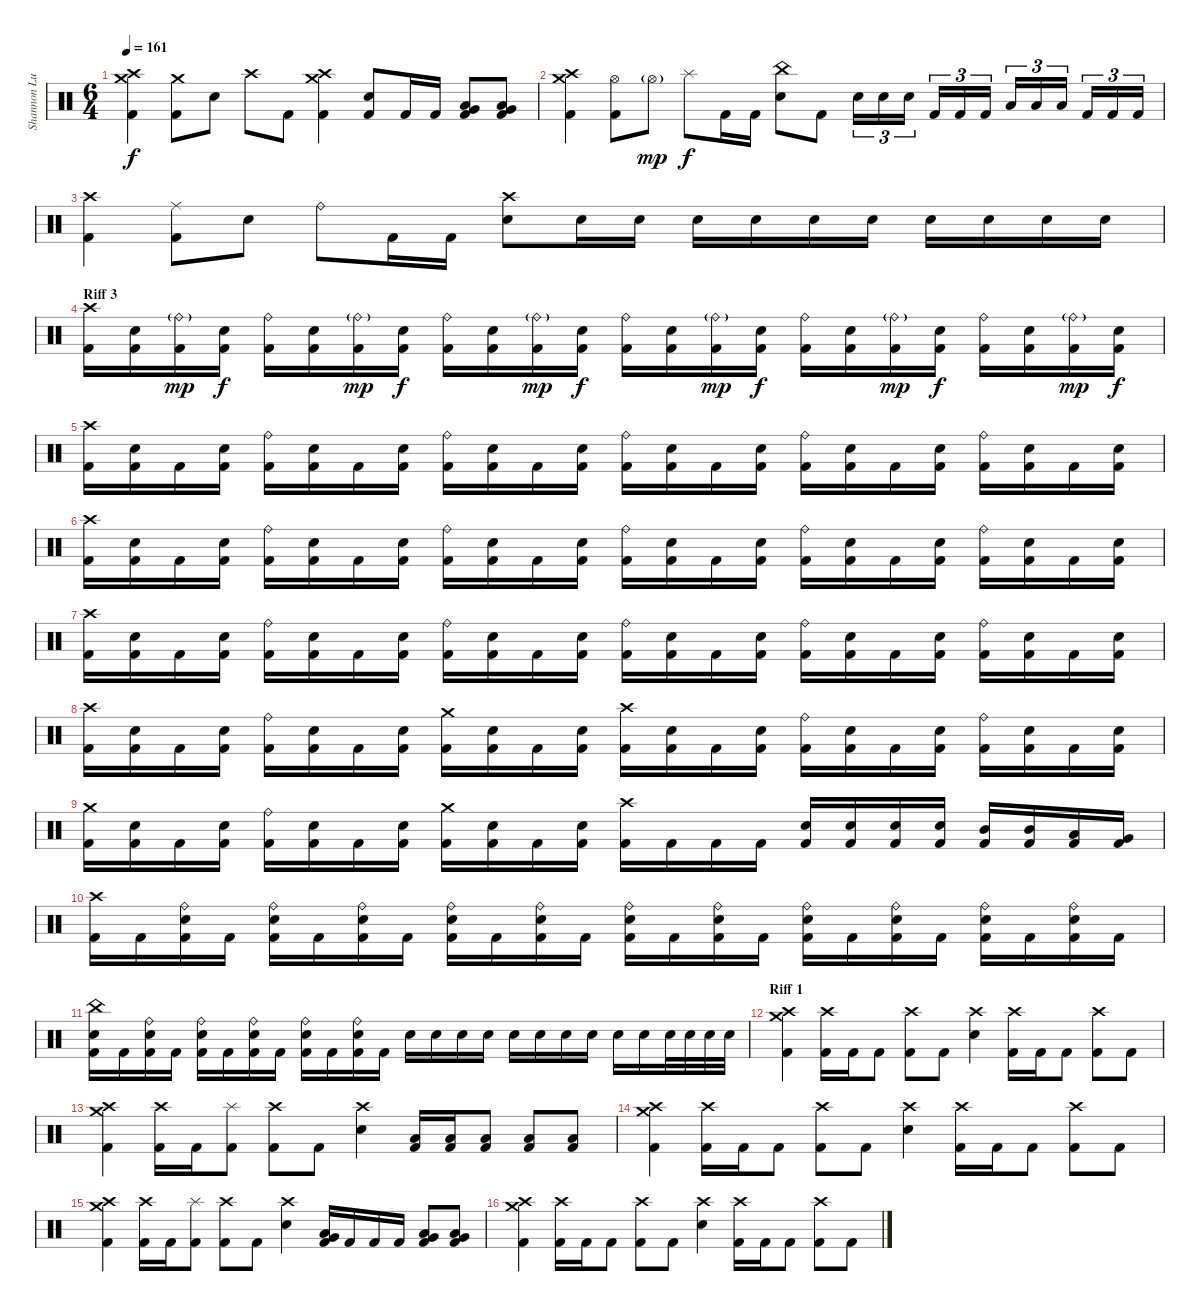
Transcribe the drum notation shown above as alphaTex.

\track ("Shannon Lucas (Drums)" "Shannon Lu") {instrument percussion}
\staff {score}
\articulation defaults
\ts (6 4)
\tempo 161
\clef neutral
\ks c
("Crash medium (hit)" "Crash high (hit)" "Kick (hit) 2").4{dy f} ("Crash medium (hit)" "Kick (hit) 2").8 "Snare (hit) 2".8 "Crash high (hit)".8 "Kick (hit) 2".8 ("Crash high (hit)" "Crash medium (hit)" "Kick (hit) 2").4 ("Snare (hit) 2" "Kick (hit) 2").8 "Kick (hit) 2".16 "Kick (hit) 2".16 ("Very Low Tom (hit)" "Low Tom (hit)" "Kick (hit) 2").8 ("Low Floor Tom (hit)" "Very Low Tom (hit)" "Kick (hit) 2").8 |
("Crash medium (hit)" "Crash high (hit)" "Kick (hit) 2").4 ("Hi-Hat (open)" "Kick (hit) 2").8 "Hi-Hat (open)"{g}.8{dy mp} "Splash (hit)".8{dy f} "Kick (hit) 2".16 "Kick (hit) 2".16 ("China (hit)" "Snare (hit) 2").8 "Kick (hit) 2".8 "Snare (hit) 2".16{tu (3 2)} "Snare (hit) 2".16{tu (3 2)} "Snare (hit) 2".16{tu (3 2)} "Kick (hit) 2".16{tu (3 2)} "Kick (hit) 2".16{tu (3 2)} "Kick (hit) 2".16{tu (3 2)} "Low Tom (hit)".16{tu (3 2)} "Low Tom (hit)".16{tu (3 2)} "Low Tom (hit)".16{tu (3 2)} "Kick (hit) 2".16{tu (3 2)} "Kick (hit) 2".16{tu (3 2)} "Kick (hit) 2".16{tu (3 2)} |
("Crash high (hit)" "Kick (hit) 2").4 ("Ride (middle)" "Kick (hit) 2").8 "Snare (hit) 2".8 "Ride (bell)".8 "Kick (hit) 2".16 "Kick (hit) 2".16 ("Crash high (hit)" "Snare (hit) 2").8 "Snare (hit) 2".16 "Snare (hit) 2".16 "Snare (hit) 2".16 "Snare (hit) 2".16 "Snare (hit) 2".16 "Snare (hit) 2".16 "Snare (hit) 2".16 "Snare (hit) 2".16 "Snare (hit) 2".16 "Snare (hit) 2".16 |
\section ("" "Riff 3")
("Crash high (hit)" "Kick (hit) 2").16 ("Snare (hit) 2" "Kick (hit) 2").16 ("Ride (bell)"{g} "Kick (hit) 2").16{dy mp} ("Snare (hit) 2" "Kick (hit) 2").16{dy f} ("Ride (bell)" "Kick (hit) 2").16 ("Snare (hit) 2" "Kick (hit) 2").16 ("Ride (bell)"{g} "Kick (hit) 2").16{dy mp} ("Snare (hit) 2" "Kick (hit) 2").16{dy f} ("Ride (bell)" "Kick (hit) 2").16 ("Snare (hit) 2" "Kick (hit) 2").16 ("Ride (bell)"{g} "Kick (hit) 2").16{dy mp} ("Snare (hit) 2" "Kick (hit) 2").16{dy f} ("Ride (bell)" "Kick (hit) 2").16 ("Snare (hit) 2" "Kick (hit) 2").16 ("Ride (bell)"{g} "Kick (hit) 2").16{dy mp} ("Snare (hit) 2" "Kick (hit) 2").16{dy f} ("Ride (bell)" "Kick (hit) 2").16 ("Snare (hit) 2" "Kick (hit) 2").16 ("Ride (bell)"{g} "Kick (hit) 2").16{dy mp} ("Snare (hit) 2" "Kick (hit) 2").16{dy f} ("Ride (bell)" "Kick (hit) 2").16 ("Snare (hit) 2" "Kick (hit) 2").16 ("Ride (bell)"{g} "Kick (hit) 2").16{dy mp} ("Snare (hit) 2" "Kick (hit) 2").16{dy f} |
("Crash high (hit)" "Kick (hit) 2").16 ("Snare (hit) 2" "Kick (hit) 2").16 "Kick (hit) 2".16 ("Snare (hit) 2" "Kick (hit) 2").16 ("Ride (bell)" "Kick (hit) 2").16 ("Snare (hit) 2" "Kick (hit) 2").16 "Kick (hit) 2".16 ("Snare (hit) 2" "Kick (hit) 2").16 ("Ride (bell)" "Kick (hit) 2").16 ("Snare (hit) 2" "Kick (hit) 2").16 "Kick (hit) 2".16 ("Snare (hit) 2" "Kick (hit) 2").16 ("Ride (bell)" "Kick (hit) 2").16 ("Snare (hit) 2" "Kick (hit) 2").16 "Kick (hit) 2".16 ("Snare (hit) 2" "Kick (hit) 2").16 ("Ride (bell)" "Kick (hit) 2").16 ("Snare (hit) 2" "Kick (hit) 2").16 "Kick (hit) 2".16 ("Snare (hit) 2" "Kick (hit) 2").16 ("Ride (bell)" "Kick (hit) 2").16 ("Snare (hit) 2" "Kick (hit) 2").16 "Kick (hit) 2".16 ("Snare (hit) 2" "Kick (hit) 2").16 |
("Crash high (hit)" "Kick (hit) 2").16 ("Snare (hit) 2" "Kick (hit) 2").16 "Kick (hit) 2".16 ("Snare (hit) 2" "Kick (hit) 2").16 ("Ride (bell)" "Kick (hit) 2").16 ("Snare (hit) 2" "Kick (hit) 2").16 "Kick (hit) 2".16 ("Snare (hit) 2" "Kick (hit) 2").16 ("Ride (bell)" "Kick (hit) 2").16 ("Snare (hit) 2" "Kick (hit) 2").16 "Kick (hit) 2".16 ("Snare (hit) 2" "Kick (hit) 2").16 ("Ride (bell)" "Kick (hit) 2").16 ("Snare (hit) 2" "Kick (hit) 2").16 "Kick (hit) 2".16 ("Snare (hit) 2" "Kick (hit) 2").16 ("Ride (bell)" "Kick (hit) 2").16 ("Snare (hit) 2" "Kick (hit) 2").16 "Kick (hit) 2".16 ("Snare (hit) 2" "Kick (hit) 2").16 ("Ride (bell)" "Kick (hit) 2").16 ("Snare (hit) 2" "Kick (hit) 2").16 "Kick (hit) 2".16 ("Snare (hit) 2" "Kick (hit) 2").16 |
("Crash high (hit)" "Kick (hit) 2").16 ("Snare (hit) 2" "Kick (hit) 2").16 "Kick (hit) 2".16 ("Snare (hit) 2" "Kick (hit) 2").16 ("Ride (bell)" "Kick (hit) 2").16 ("Snare (hit) 2" "Kick (hit) 2").16 "Kick (hit) 2".16 ("Snare (hit) 2" "Kick (hit) 2").16 ("Ride (bell)" "Kick (hit) 2").16 ("Snare (hit) 2" "Kick (hit) 2").16 "Kick (hit) 2".16 ("Snare (hit) 2" "Kick (hit) 2").16 ("Ride (bell)" "Kick (hit) 2").16 ("Snare (hit) 2" "Kick (hit) 2").16 "Kick (hit) 2".16 ("Snare (hit) 2" "Kick (hit) 2").16 ("Ride (bell)" "Kick (hit) 2").16 ("Snare (hit) 2" "Kick (hit) 2").16 "Kick (hit) 2".16 ("Snare (hit) 2" "Kick (hit) 2").16 ("Ride (bell)" "Kick (hit) 2").16 ("Snare (hit) 2" "Kick (hit) 2").16 "Kick (hit) 2".16 ("Snare (hit) 2" "Kick (hit) 2").16 |
("Crash high (hit)" "Kick (hit) 2").16 ("Snare (hit) 2" "Kick (hit) 2").16 "Kick (hit) 2".16 ("Snare (hit) 2" "Kick (hit) 2").16 ("Ride (bell)" "Kick (hit) 2").16 ("Snare (hit) 2" "Kick (hit) 2").16 "Kick (hit) 2".16 ("Snare (hit) 2" "Kick (hit) 2").16 ("Crash medium (hit)" "Kick (hit) 2").16 ("Snare (hit) 2" "Kick (hit) 2").16 "Kick (hit) 2".16 ("Snare (hit) 2" "Kick (hit) 2").16 ("Crash high (hit)" "Kick (hit) 2").16 ("Snare (hit) 2" "Kick (hit) 2").16 "Kick (hit) 2".16 ("Snare (hit) 2" "Kick (hit) 2").16 ("Ride (bell)" "Kick (hit) 2").16 ("Snare (hit) 2" "Kick (hit) 2").16 "Kick (hit) 2".16 ("Snare (hit) 2" "Kick (hit) 2").16 ("Ride (bell)" "Kick (hit) 2").16 ("Snare (hit) 2" "Kick (hit) 2").16 "Kick (hit) 2".16 ("Snare (hit) 2" "Kick (hit) 2").16 |
("Crash medium (hit)" "Kick (hit) 2").16 ("Snare (hit) 2" "Kick (hit) 2").16 "Kick (hit) 2".16 ("Snare (hit) 2" "Kick (hit) 2").16 ("Ride (bell)" "Kick (hit) 2").16 ("Snare (hit) 2" "Kick (hit) 2").16 "Kick (hit) 2".16 ("Snare (hit) 2" "Kick (hit) 2").16 ("Crash medium (hit)" "Kick (hit) 2").16 ("Snare (hit) 2" "Kick (hit) 2").16 "Kick (hit) 2".16 ("Snare (hit) 2" "Kick (hit) 2").16 ("Crash high (hit)" "Kick (hit) 2").16 "Kick (hit) 2".16 "Kick (hit) 2".16 "Kick (hit) 2".16 ("Snare (hit) 2" "Kick (hit) 2").16 ("Snare (hit) 2" "Kick (hit) 2").16 ("Snare (hit) 2" "Kick (hit) 2").16 ("Snare (hit) 2" "Kick (hit) 2").16 ("Mid Tom (hit)" "Kick (hit) 2").16 ("Mid Tom (hit)" "Kick (hit) 2").16 ("Low Tom (hit)" "Kick (hit) 2").16 ("Very Low Tom (hit)" "Kick (hit) 2").16 |
("Crash high (hit)" "Kick (hit) 2").16 "Kick (hit) 2".16 ("Ride (bell)" "Snare (hit) 2" "Kick (hit) 2").16 "Kick (hit) 2".16 ("Ride (bell)" "Snare (hit) 2" "Kick (hit) 2").16 "Kick (hit) 2".16 ("Ride (bell)" "Snare (hit) 2" "Kick (hit) 2").16 "Kick (hit) 2".16 ("Ride (bell)" "Snare (hit) 2" "Kick (hit) 2").16 "Kick (hit) 2".16 ("Ride (bell)" "Snare (hit) 2" "Kick (hit) 2").16 "Kick (hit) 2".16 ("Ride (bell)" "Snare (hit) 2" "Kick (hit) 2").16 "Kick (hit) 2".16 ("Ride (bell)" "Snare (hit) 2" "Kick (hit) 2").16 "Kick (hit) 2".16 ("Ride (bell)" "Snare (hit) 2" "Kick (hit) 2").16 "Kick (hit) 2".16 ("Ride (bell)" "Snare (hit) 2" "Kick (hit) 2").16 "Kick (hit) 2".16 ("Ride (bell)" "Snare (hit) 2" "Kick (hit) 2").16 "Kick (hit) 2".16 ("Ride (bell)" "Snare (hit) 2" "Kick (hit) 2").16 "Kick (hit) 2".16 |
("China (hit)" "Snare (hit) 2" "Kick (hit) 2").16 "Kick (hit) 2".16 ("Ride (bell)" "Snare (hit) 2" "Kick (hit) 2").16 "Kick (hit) 2".16 ("Ride (bell)" "Snare (hit) 2" "Kick (hit) 2").16 "Kick (hit) 2".16 ("Ride (bell)" "Snare (hit) 2" "Kick (hit) 2").16 "Kick (hit) 2".16 ("Ride (bell)" "Snare (hit) 2" "Kick (hit) 2").16 "Kick (hit) 2".16 ("Ride (bell)" "Snare (hit) 2" "Kick (hit) 2").16 "Kick (hit) 2".16 "Snare (hit) 2".16 "Snare (hit) 2".16 "Snare (hit) 2".16 "Snare (hit) 2".16 "Snare (hit) 2".16 "Snare (hit) 2".16 "Snare (hit) 2".16 "Snare (hit) 2".16 "Snare (hit) 2".16 "Snare (hit) 2".16 "Snare (hit) 2".32 "Snare (hit) 2".32 "Snare (hit) 2".32 "Snare (hit) 2".32 |
\section ("" "Riff 1")
("Crash medium (hit)" "Crash high (hit)" "Kick (hit) 2").4 ("Crash high (hit)" "Kick (hit) 2").16 "Kick (hit) 2".16 "Kick (hit) 2".8 ("Crash high (hit)" "Kick (hit) 2").8 "Kick (hit) 2".8 ("Crash high (hit)" "Snare (hit) 2").4 ("Crash high (hit)" "Kick (hit) 2").16 "Kick (hit) 2".16 "Kick (hit) 2".8 ("Crash high (hit)" "Kick (hit) 2").8 "Kick (hit) 2".8 |
("Crash medium (hit)" "Crash high (hit)" "Kick (hit) 2").4 ("Crash high (hit)" "Kick (hit) 2").16 "Kick (hit) 2".16 ("Splash (hit)" "Kick (hit) 2").8 ("Crash high (hit)" "Kick (hit) 2").8 "Kick (hit) 2".8 ("Crash high (hit)" "Snare (hit) 2").4 ("Low Floor Tom (hit)" "Kick (hit) 2").16 ("Low Floor Tom (hit)" "Kick (hit) 2").16 ("Low Floor Tom (hit)" "Kick (hit) 2").8 ("Low Floor Tom (hit)" "Kick (hit) 2").8 ("Low Floor Tom (hit)" "Kick (hit) 2").8 |
("Crash medium (hit)" "Crash high (hit)" "Kick (hit) 2").4 ("Crash high (hit)" "Kick (hit) 2").16 "Kick (hit) 2".16 "Kick (hit) 2".8 ("Crash high (hit)" "Kick (hit) 2").8 "Kick (hit) 2".8 ("Crash high (hit)" "Snare (hit) 2").4 ("Crash high (hit)" "Kick (hit) 2").16 "Kick (hit) 2".16 "Kick (hit) 2".8 ("Crash high (hit)" "Kick (hit) 2").8 "Kick (hit) 2".8 |
("Crash medium (hit)" "Crash high (hit)" "Kick (hit) 2").4 ("Crash high (hit)" "Kick (hit) 2").16 "Kick (hit) 2".16 ("Splash (hit)" "Kick (hit) 2").8 ("Crash high (hit)" "Kick (hit) 2").8 "Kick (hit) 2".8 ("Crash high (hit)" "Snare (hit) 2").4 ("Very Low Tom (hit)" "Low Floor Tom (hit)" "Kick (hit) 2").16 "Kick (hit) 2".16 "Kick (hit) 2".16 "Kick (hit) 2".16 ("Very Low Tom (hit)" "Low Floor Tom (hit)" "Kick (hit) 2").8 ("Very Low Tom (hit)" "Low Floor Tom (hit)" "Kick (hit) 2").8 |
("Crash medium (hit)" "Crash high (hit)" "Kick (hit) 2").4 ("Crash high (hit)" "Kick (hit) 2").16 "Kick (hit) 2".16 "Kick (hit) 2".8 ("Crash high (hit)" "Kick (hit) 2").8 "Kick (hit) 2".8 ("Crash high (hit)" "Snare (hit) 2").4 ("Crash high (hit)" "Kick (hit) 2").16 "Kick (hit) 2".16 "Kick (hit) 2".8 ("Crash high (hit)" "Kick (hit) 2").8 "Kick (hit) 2".8
